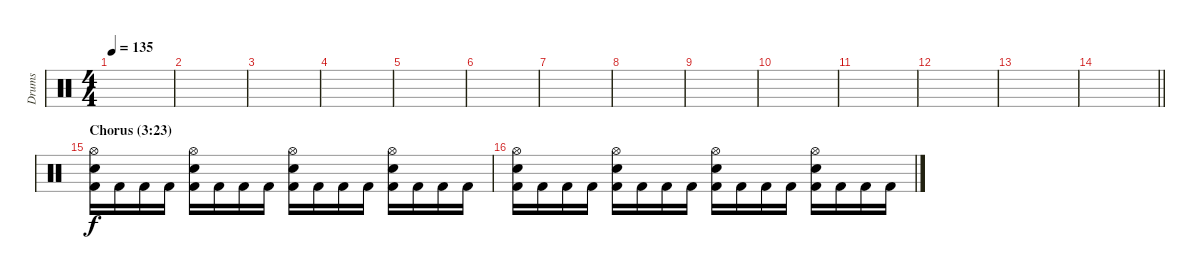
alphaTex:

\track ("Drums" "Drums") {instrument percussion}
\staff {score}
\articulation defaults
\ts (4 4)
\tempo 135
\clef neutral
\ks c
|
|
|
|
|
|
|
|
|
|
|
|
|
\barLineRight lightlight
|
\section ("" "Chorus (3:23)")
("Hi-Hat (open)" "Electric Snare (hit)" "Kick (hit) 2").16 "Kick (hit) 2".16 "Kick (hit) 2".16 "Kick (hit) 2".16 ("Hi-Hat (open)" "Electric Snare (hit)" "Kick (hit) 2").16 "Kick (hit) 2".16 "Kick (hit) 2".16 "Kick (hit) 2".16 ("Hi-Hat (open)" "Electric Snare (hit)" "Kick (hit) 2").16 "Kick (hit) 2".16 "Kick (hit) 2".16 "Kick (hit) 2".16 ("Hi-Hat (open)" "Electric Snare (hit)" "Kick (hit) 2").16 "Kick (hit) 2".16 "Kick (hit) 2".16 "Kick (hit) 2".16 |
("Hi-Hat (open)" "Electric Snare (hit)" "Kick (hit) 2").16 "Kick (hit) 2".16 "Kick (hit) 2".16 "Kick (hit) 2".16 ("Hi-Hat (open)" "Electric Snare (hit)" "Kick (hit) 2").16 "Kick (hit) 2".16 "Kick (hit) 2".16 "Kick (hit) 2".16 ("Hi-Hat (open)" "Electric Snare (hit)" "Kick (hit) 2").16 "Kick (hit) 2".16 "Kick (hit) 2".16 "Kick (hit) 2".16 ("Hi-Hat (open)" "Electric Snare (hit)" "Kick (hit) 2").16 "Kick (hit) 2".16 "Kick (hit) 2".16 "Kick (hit) 2".16
